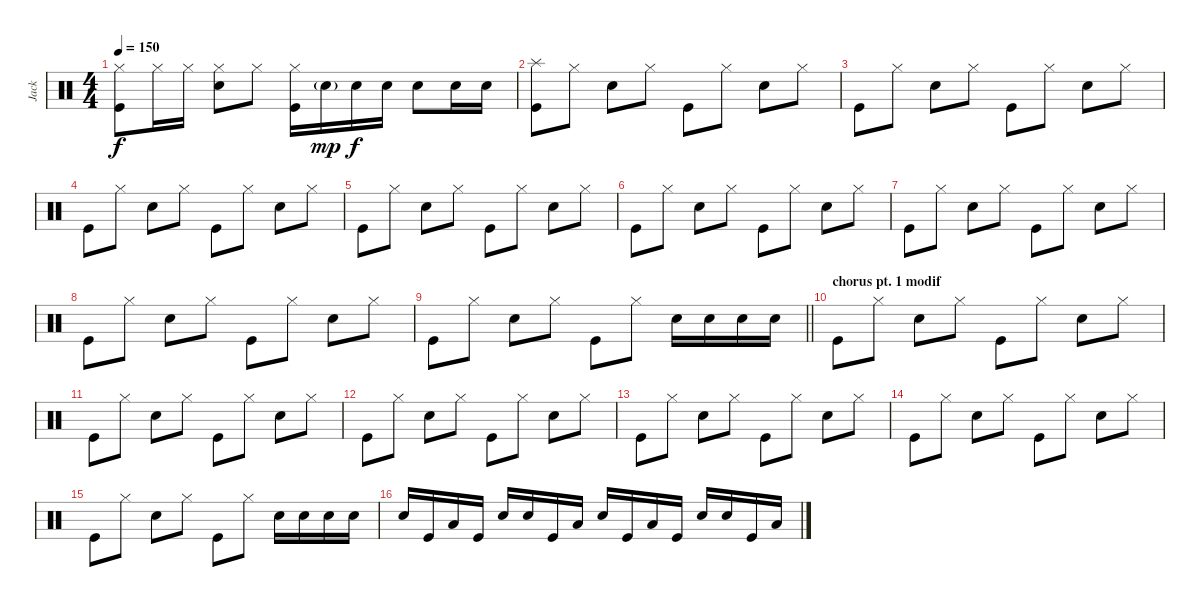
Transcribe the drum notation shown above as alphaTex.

\track ("Jack" "Jack") {instrument percussion}
\staff {score}
\articulation defaults
\ts (4 4)
\tempo 150
\clef neutral
\ks c
("Hi-Hat (closed)" "Kick (hit)").8{dy f} "Hi-Hat (closed)".16 "Hi-Hat (closed)".16 ("Hi-Hat (closed)" "Electric Snare (hit)").8 "Hi-Hat (closed)".8 ("Hi-Hat (closed)" "Kick (hit)").16 "Electric Snare (hit)"{g}.16{dy mp} "Electric Snare (hit)".16{dy f} "Electric Snare (hit)".16 "Electric Snare (hit)".8 "Electric Snare (hit)".16 "Electric Snare (hit)".16 |
("Splash (hit)" "Kick (hit)").8 "Hi-Hat (closed)".8 "Electric Snare (hit)".8 "Hi-Hat (closed)".8 "Kick (hit)".8 "Hi-Hat (closed)".8 "Electric Snare (hit)".8 "Hi-Hat (closed)".8 |
"Kick (hit)".8 "Hi-Hat (closed)".8 "Electric Snare (hit)".8 "Hi-Hat (closed)".8 "Kick (hit)".8 "Hi-Hat (closed)".8 "Electric Snare (hit)".8 "Hi-Hat (closed)".8 |
"Kick (hit)".8 "Hi-Hat (closed)".8 "Electric Snare (hit)".8 "Hi-Hat (closed)".8 "Kick (hit)".8 "Hi-Hat (closed)".8 "Electric Snare (hit)".8 "Hi-Hat (closed)".8 |
"Kick (hit)".8 "Hi-Hat (closed)".8 "Electric Snare (hit)".8 "Hi-Hat (closed)".8 "Kick (hit)".8 "Hi-Hat (closed)".8 "Electric Snare (hit)".8 "Hi-Hat (closed)".8 |
"Kick (hit)".8 "Hi-Hat (closed)".8 "Electric Snare (hit)".8 "Hi-Hat (closed)".8 "Kick (hit)".8 "Hi-Hat (closed)".8 "Electric Snare (hit)".8 "Hi-Hat (closed)".8 |
"Kick (hit)".8 "Hi-Hat (closed)".8 "Electric Snare (hit)".8 "Hi-Hat (closed)".8 "Kick (hit)".8 "Hi-Hat (closed)".8 "Electric Snare (hit)".8 "Hi-Hat (closed)".8 |
"Kick (hit)".8 "Hi-Hat (closed)".8 "Electric Snare (hit)".8 "Hi-Hat (closed)".8 "Kick (hit)".8 "Hi-Hat (closed)".8 "Electric Snare (hit)".8 "Hi-Hat (closed)".8 |
\barLineRight lightlight "Kick (hit)".8 "Hi-Hat (closed)".8 "Electric Snare (hit)".8 "Hi-Hat (closed)".8 "Kick (hit)".8 "Hi-Hat (closed)".8 "Electric Snare (hit)".16 "Electric Snare (hit)".16 "Electric Snare (hit)".16 "Electric Snare (hit)".16
|
\section ("" "chorus pt. 1 modif")
"Kick (hit)".8 "Hi-Hat (closed)".8 "Electric Snare (hit)".8 "Hi-Hat (closed)".8 "Kick (hit)".8 "Hi-Hat (closed)".8 "Electric Snare (hit)".8 "Hi-Hat (closed)".8 |
"Kick (hit)".8 "Hi-Hat (closed)".8 "Electric Snare (hit)".8 "Hi-Hat (closed)".8 "Kick (hit)".8 "Hi-Hat (closed)".8 "Electric Snare (hit)".8 "Hi-Hat (closed)".8 |
"Kick (hit)".8 "Hi-Hat (closed)".8 "Electric Snare (hit)".8 "Hi-Hat (closed)".8 "Kick (hit)".8 "Hi-Hat (closed)".8 "Electric Snare (hit)".8 "Hi-Hat (closed)".8 |
"Kick (hit)".8 "Hi-Hat (closed)".8 "Electric Snare (hit)".8 "Hi-Hat (closed)".8 "Kick (hit)".8 "Hi-Hat (closed)".8 "Electric Snare (hit)".8 "Hi-Hat (closed)".8 |
"Kick (hit)".8 "Hi-Hat (closed)".8 "Electric Snare (hit)".8 "Hi-Hat (closed)".8 "Kick (hit)".8 "Hi-Hat (closed)".8 "Electric Snare (hit)".8 "Hi-Hat (closed)".8 |
"Kick (hit)".8 "Hi-Hat (closed)".8 "Electric Snare (hit)".8 "Hi-Hat (closed)".8 "Kick (hit)".8 "Hi-Hat (closed)".8 "Electric Snare (hit)".16 "Electric Snare (hit)".16 "Electric Snare (hit)".16 "Electric Snare (hit)".16 |
"Electric Snare (hit)".16 "Kick (hit)".16 "Low Tom (hit)".16 "Kick (hit)".16 "Electric Snare (hit)".16 "Electric Snare (hit)".16 "Kick (hit)".16 "Low Tom (hit)".16 "Electric Snare (hit)".16 "Kick (hit)".16 "Low Tom (hit)".16 "Kick (hit)".16 "Electric Snare (hit)".16 "Electric Snare (hit)".16 "Kick (hit)".16 "Low Tom (hit)".16
